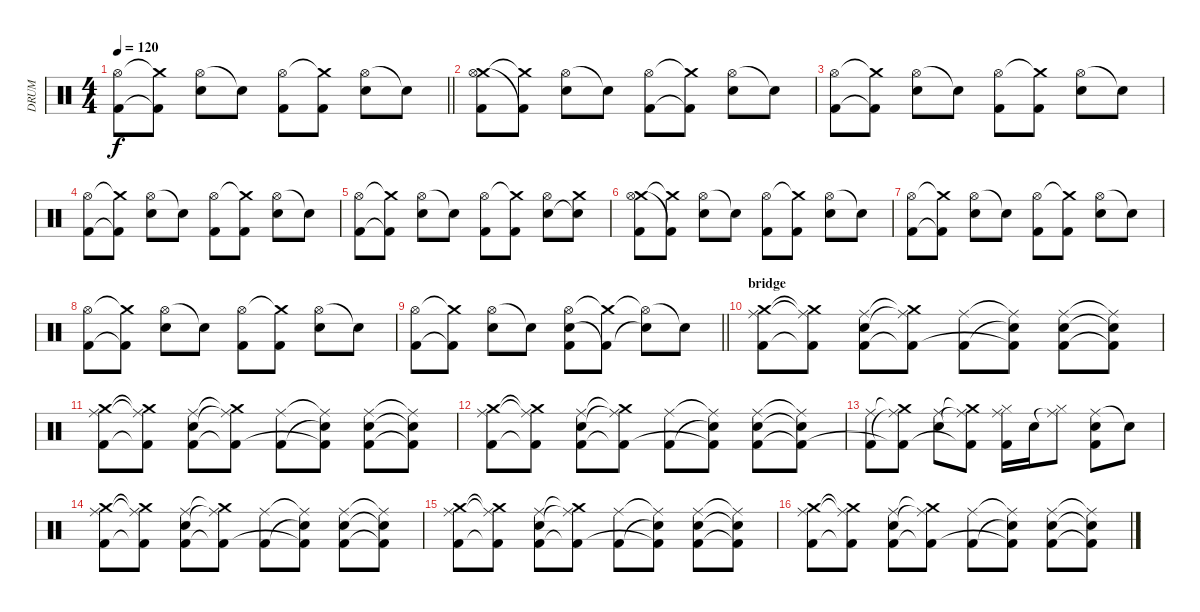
\track ("DRUM" "DRUM") {instrument percussion}
\staff {score}
\articulation defaults
\ts (4 4)
\tempo 120
\clef neutral
\barLineRight lightlight
\ks c
("Hi-Hat (open)" "Kick (hit) 2").8{dy f} ("Crash medium (hit)"{t} "Kick (hit) 2"{t}).8 ("Hi-Hat (open)" "Electric Snare (hit)").8 "Electric Snare (hit)"{t}.8 ("Hi-Hat (open)" "Kick (hit) 2").8 ("Crash medium (hit)"{t} "Kick (hit) 2").8 ("Hi-Hat (open)" "Electric Snare (hit)").8 "Electric Snare (hit)"{t}.8 |
("Crash medium (hit)" "Hi-Hat (open)" "Kick (hit) 2").8 ("Crash medium (hit)"{t} "Kick (hit) 2"{t}).8 ("Hi-Hat (open)" "Electric Snare (hit)").8 "Electric Snare (hit)"{t}.8 ("Hi-Hat (open)" "Kick (hit) 2").8 ("Crash medium (hit)"{t} "Kick (hit) 2"{t}).8 ("Hi-Hat (open)" "Electric Snare (hit)").8 "Electric Snare (hit)"{t}.8 |
("Hi-Hat (open)" "Kick (hit) 2").8 ("Crash medium (hit)"{t} "Kick (hit) 2"{t}).8 ("Hi-Hat (open)" "Electric Snare (hit)").8 "Electric Snare (hit)"{t}.8 ("Hi-Hat (open)" "Kick (hit) 2").8 ("Crash medium (hit)"{t} "Kick (hit) 2").8 ("Hi-Hat (open)" "Electric Snare (hit)").8 "Electric Snare (hit)"{t}.8 |
("Hi-Hat (open)" "Kick (hit) 2").8 ("Crash medium (hit)"{t} "Kick (hit) 2"{t}).8 ("Hi-Hat (open)" "Electric Snare (hit)").8 "Electric Snare (hit)"{t}.8 ("Hi-Hat (open)" "Kick (hit) 2").8 ("Crash medium (hit)"{t} "Kick (hit) 2").8 ("Hi-Hat (open)" "Electric Snare (hit)").8 "Electric Snare (hit)"{t}.8 |
("Hi-Hat (open)" "Kick (hit) 2").8 ("Crash medium (hit)"{t} "Kick (hit) 2"{t}).8 ("Hi-Hat (open)" "Electric Snare (hit)").8 "Electric Snare (hit)"{t}.8 ("Hi-Hat (open)" "Kick (hit) 2").8 ("Crash medium (hit)"{t} "Kick (hit) 2").8 ("Hi-Hat (open)" "Electric Snare (hit)").8 ("Crash medium (hit)" "Electric Snare (hit)"{t}).8 |
("Crash medium (hit)" "Hi-Hat (open)" "Kick (hit) 2").8 ("Crash medium (hit)"{t} "Kick (hit) 2"{t}).8 ("Hi-Hat (open)" "Electric Snare (hit)").8 "Electric Snare (hit)"{t}.8 ("Hi-Hat (open)" "Kick (hit) 2").8 ("Crash medium (hit)"{t} "Kick (hit) 2").8 ("Hi-Hat (open)" "Electric Snare (hit)").8 "Electric Snare (hit)"{t}.8 |
("Hi-Hat (open)" "Kick (hit) 2").8 ("Crash medium (hit)"{t} "Kick (hit) 2"{t}).8 ("Hi-Hat (open)" "Electric Snare (hit)").8 "Electric Snare (hit)"{t}.8 ("Hi-Hat (open)" "Kick (hit) 2").8 ("Crash medium (hit)"{t} "Kick (hit) 2").8 ("Hi-Hat (open)" "Electric Snare (hit)").8 "Electric Snare (hit)"{t}.8 |
("Hi-Hat (open)" "Kick (hit) 2").8 ("Crash medium (hit)"{t} "Kick (hit) 2"{t}).8 ("Hi-Hat (open)" "Electric Snare (hit)").8 "Electric Snare (hit)"{t}.8 ("Hi-Hat (open)" "Kick (hit) 2").8 ("Crash medium (hit)"{t} "Kick (hit) 2").8 ("Hi-Hat (open)" "Electric Snare (hit)").8 "Electric Snare (hit)"{t}.8 |
\barLineRight lightlight
("Hi-Hat (open)" "Kick (hit) 2").8 ("Crash medium (hit)"{t} "Kick (hit) 2"{t}).8 ("Hi-Hat (open)" "Electric Snare (hit)").8 "Electric Snare (hit)"{t}.8 ("Hi-Hat (open)" "Electric Snare (hit)" "Kick (hit) 2").8 ("Crash medium (hit)"{t} "Kick (hit) 2"{t}).8 ("Hi-Hat (open)"{t} "Electric Snare (hit)"{t}).8 "Electric Snare (hit)"{t}.8 |
\section ("" "bridge")
("Crash medium (hit)" "Ride (middle)" "Kick (hit) 2").8 ("Crash medium (hit)"{t} "Ride (middle)"{t} "Kick (hit) 2"{t}).8 ("Ride (middle)" "Electric Snare (hit)" "Kick (hit) 2").8 ("Crash medium (hit)"{t} "Ride (middle)"{t} "Kick (hit) 2"{t}).8 ("Ride (middle)" "Kick (hit) 2").8 ("Ride (middle)"{t} "Electric Snare (hit)"{t} "Kick (hit) 2"{t}).8 ("Ride (middle)" "Electric Snare (hit)" "Kick (hit) 2").8 ("Ride (middle)"{t} "Electric Snare (hit)"{t} "Kick (hit) 2"{t}).8 |
("Crash medium (hit)" "Ride (middle)" "Kick (hit) 2").8 ("Crash medium (hit)"{t} "Ride (middle)"{t} "Kick (hit) 2"{t}).8 ("Ride (middle)" "Electric Snare (hit)" "Kick (hit) 2").8 ("Crash medium (hit)"{t} "Ride (middle)"{t} "Kick (hit) 2"{t}).8 ("Ride (middle)" "Kick (hit) 2").8 ("Ride (middle)"{t} "Electric Snare (hit)"{t} "Kick (hit) 2"{t}).8 ("Ride (middle)" "Electric Snare (hit)" "Kick (hit) 2").8 ("Ride (middle)"{t} "Electric Snare (hit)"{t} "Kick (hit) 2"{t}).8 |
("Crash medium (hit)" "Ride (middle)" "Kick (hit) 2").8 ("Crash medium (hit)"{t} "Ride (middle)"{t} "Kick (hit) 2"{t}).8 ("Ride (middle)" "Electric Snare (hit)" "Kick (hit) 2").8 ("Crash medium (hit)"{t} "Ride (middle)"{t} "Kick (hit) 2"{t}).8 ("Ride (middle)" "Kick (hit) 2").8 ("Ride (middle)"{t} "Electric Snare (hit)"{t} "Kick (hit) 2"{t}).8 ("Ride (middle)" "Electric Snare (hit)" "Kick (hit) 2").8 ("Ride (middle)"{t} "Electric Snare (hit)"{t} "Kick (hit) 2"{t}).8 |
("Ride (middle)" "Kick (hit) 2").8 ("Crash medium (hit)"{t} "Ride (middle)"{t} "Kick (hit) 2"{t}).8 ("Ride (middle)" "Electric Snare (hit)").8 ("Crash medium (hit)"{t} "Ride (middle)"{t} "Kick (hit) 2"{t}).8 ("Ride (middle)" "Hi-Hat (closed)" "Kick (hit) 2").16 "Electric Snare (hit)".16 ("Ride (middle)"{t} "Hi-Hat (closed)").8 ("Ride (middle)" "Electric Snare (hit)" "Kick (hit) 2").8 "Electric Snare (hit)"{t}.8 |
("Crash medium (hit)" "Ride (middle)" "Kick (hit) 2").8 ("Crash medium (hit)"{t} "Ride (middle)"{t} "Kick (hit) 2"{t}).8 ("Ride (middle)" "Electric Snare (hit)" "Kick (hit) 2").8 ("Crash medium (hit)"{t} "Ride (middle)"{t} "Kick (hit) 2"{t}).8 ("Ride (middle)" "Kick (hit) 2").8 ("Ride (middle)"{t} "Electric Snare (hit)"{t} "Kick (hit) 2"{t}).8 ("Ride (middle)" "Electric Snare (hit)" "Kick (hit) 2").8 ("Ride (middle)"{t} "Electric Snare (hit)"{t} "Kick (hit) 2"{t}).8 |
("Crash medium (hit)" "Ride (middle)" "Kick (hit) 2").8 ("Crash medium (hit)"{t} "Ride (middle)"{t} "Kick (hit) 2"{t}).8 ("Ride (middle)" "Electric Snare (hit)" "Kick (hit) 2").8 ("Crash medium (hit)"{t} "Ride (middle)"{t} "Kick (hit) 2"{t}).8 ("Ride (middle)" "Kick (hit) 2").8 ("Ride (middle)"{t} "Electric Snare (hit)"{t} "Kick (hit) 2"{t}).8 ("Ride (middle)" "Electric Snare (hit)" "Kick (hit) 2").8 ("Ride (middle)"{t} "Electric Snare (hit)"{t} "Kick (hit) 2"{t}).8 |
("Crash medium (hit)" "Ride (middle)" "Kick (hit) 2").8 ("Crash medium (hit)"{t} "Ride (middle)"{t} "Kick (hit) 2"{t}).8 ("Ride (middle)" "Electric Snare (hit)" "Kick (hit) 2").8 ("Crash medium (hit)"{t} "Ride (middle)"{t} "Kick (hit) 2"{t}).8 ("Ride (middle)" "Kick (hit) 2").8 ("Ride (middle)"{t} "Electric Snare (hit)"{t} "Kick (hit) 2"{t}).8 ("Ride (middle)" "Electric Snare (hit)" "Kick (hit) 2").8 ("Ride (middle)"{t} "Electric Snare (hit)"{t} "Kick (hit) 2"{t}).8
